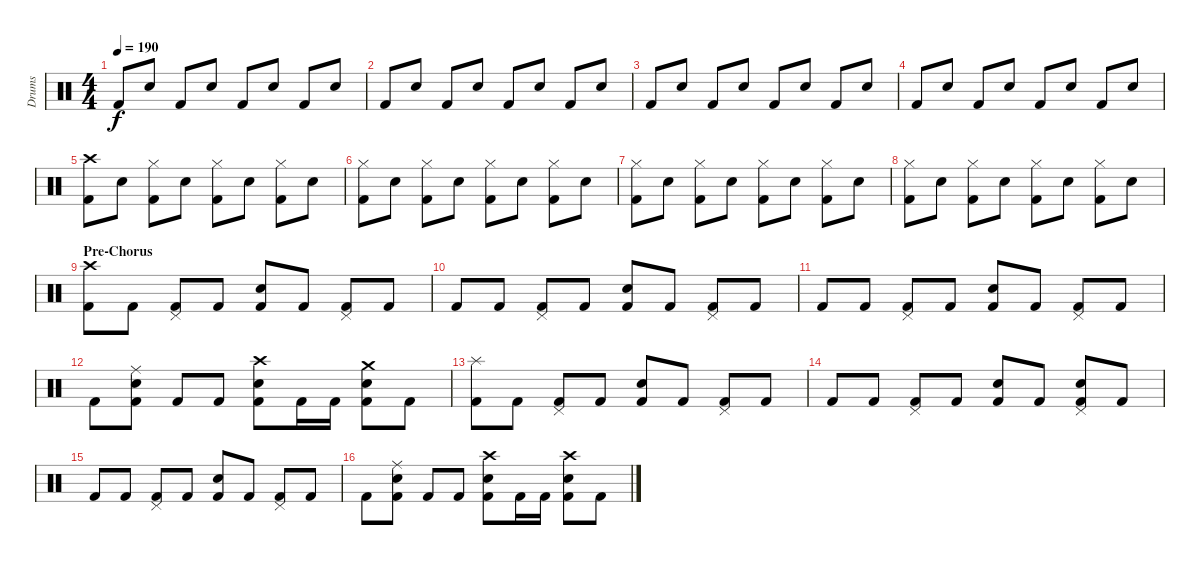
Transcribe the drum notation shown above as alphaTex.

\track ("Drums" "Drums") {instrument percussion}
\staff {score}
\articulation defaults
\ts (4 4)
\tempo 190
\clef neutral
\ks c "Kick (hit) 2".8{dy f} "Snare (hit) 2".8 "Kick (hit) 2".8 "Snare (hit) 2".8 "Kick (hit) 2".8 "Snare (hit) 2".8 "Kick (hit) 2".8 "Snare (hit) 2".8
|
"Kick (hit) 2".8 "Snare (hit) 2".8 "Kick (hit) 2".8 "Snare (hit) 2".8 "Kick (hit) 2".8 "Snare (hit) 2".8 "Kick (hit) 2".8 "Snare (hit) 2".8 |
"Kick (hit) 2".8 "Snare (hit) 2".8 "Kick (hit) 2".8 "Snare (hit) 2".8 "Kick (hit) 2".8 "Snare (hit) 2".8 "Kick (hit) 2".8 "Snare (hit) 2".8 |
"Kick (hit) 2".8 "Snare (hit) 2".8 "Kick (hit) 2".8 "Snare (hit) 2".8 "Kick (hit) 2".8 "Snare (hit) 2".8 "Kick (hit) 2".8 "Snare (hit) 2".8 |
("Crash high (hit)" "Kick (hit) 2").8 "Snare (hit) 2".8 ("Hi-Hat (closed)" "Kick (hit) 2").8 "Snare (hit) 2".8 ("Hi-Hat (closed)" "Kick (hit) 2").8 "Snare (hit) 2".8 ("Hi-Hat (closed)" "Kick (hit) 2").8 "Snare (hit) 2".8 |
("Hi-Hat (closed)" "Kick (hit) 2").8 "Snare (hit) 2".8 ("Hi-Hat (closed)" "Kick (hit) 2").8 "Snare (hit) 2".8 ("Hi-Hat (closed)" "Kick (hit) 2").8 "Snare (hit) 2".8 ("Hi-Hat (closed)" "Kick (hit) 2").8 "Snare (hit) 2".8 |
("Hi-Hat (closed)" "Kick (hit) 2").8 "Snare (hit) 2".8 ("Hi-Hat (closed)" "Kick (hit) 2").8 "Snare (hit) 2".8 ("Hi-Hat (closed)" "Kick (hit) 2").8 "Snare (hit) 2".8 ("Hi-Hat (closed)" "Kick (hit) 2").8 "Snare (hit) 2".8 |
("Hi-Hat (closed)" "Kick (hit) 2").8 "Snare (hit) 2".8 ("Hi-Hat (closed)" "Kick (hit) 2").8 "Snare (hit) 2".8 ("Hi-Hat (closed)" "Kick (hit) 2").8 "Snare (hit) 2".8 ("Hi-Hat (closed)" "Kick (hit) 2").8 "Snare (hit) 2".8 |
\section ("" "Pre-Chorus")
("Crash high (hit)" "Kick (hit) 2").8 "Kick (hit) 2".8 ("Pedal Hi-Hat (hit)" "Kick (hit) 2").8 "Kick (hit) 2".8 ("Snare (hit) 2" "Kick (hit) 2").8 "Kick (hit) 2".8 ("Pedal Hi-Hat (hit)" "Kick (hit) 2").8 "Kick (hit) 2".8 |
"Kick (hit) 2".8 "Kick (hit) 2".8 ("Pedal Hi-Hat (hit)" "Kick (hit) 2").8 "Kick (hit) 2".8 ("Snare (hit) 2" "Kick (hit) 2").8 "Kick (hit) 2".8 ("Pedal Hi-Hat (hit)" "Kick (hit) 2").8 "Kick (hit) 2".8 |
"Kick (hit) 2".8 "Kick (hit) 2".8 ("Pedal Hi-Hat (hit)" "Kick (hit) 2").8 "Kick (hit) 2".8 ("Snare (hit) 2" "Kick (hit) 2").8 "Kick (hit) 2".8 ("Pedal Hi-Hat (hit)" "Kick (hit) 2").8 "Kick (hit) 2".8 |
"Kick (hit) 2".8 ("Ride (middle)" "Snare (hit) 2" "Kick (hit) 2").8 "Kick (hit) 2".8 "Kick (hit) 2".8 ("Crash high (hit)" "Snare (hit) 2" "Kick (hit) 2").8 "Kick (hit) 2".16 "Kick (hit) 2".16 ("Crash medium (hit)" "Snare (hit) 2" "Kick (hit) 2").8 "Kick (hit) 2".8 |
("Splash (hit)" "Kick (hit) 2").8 "Kick (hit) 2".8 ("Pedal Hi-Hat (hit)" "Kick (hit) 2").8 "Kick (hit) 2".8 ("Snare (hit) 2" "Kick (hit) 2").8 "Kick (hit) 2".8 ("Pedal Hi-Hat (hit)" "Kick (hit) 2").8 "Kick (hit) 2".8 |
"Kick (hit) 2".8 "Kick (hit) 2".8 ("Pedal Hi-Hat (hit)" "Kick (hit) 2").8 "Kick (hit) 2".8 ("Snare (hit) 2" "Kick (hit) 2").8 "Kick (hit) 2".8 ("Pedal Hi-Hat (hit)" "Snare (hit) 2" "Kick (hit) 2").8 "Kick (hit) 2".8 |
"Kick (hit) 2".8 "Kick (hit) 2".8 ("Pedal Hi-Hat (hit)" "Kick (hit) 2").8 "Kick (hit) 2".8 ("Snare (hit) 2" "Kick (hit) 2").8 "Kick (hit) 2".8 ("Pedal Hi-Hat (hit)" "Kick (hit) 2").8 "Kick (hit) 2".8 |
"Kick (hit) 2".8 ("Ride (middle)" "Snare (hit) 2" "Kick (hit) 2").8 "Kick (hit) 2".8 "Kick (hit) 2".8 ("Crash high (hit)" "Snare (hit) 2" "Kick (hit) 2").8 "Kick (hit) 2".16 "Kick (hit) 2".16 ("Crash high (hit)" "Snare (hit) 2" "Kick (hit) 2").8 "Kick (hit) 2".8
